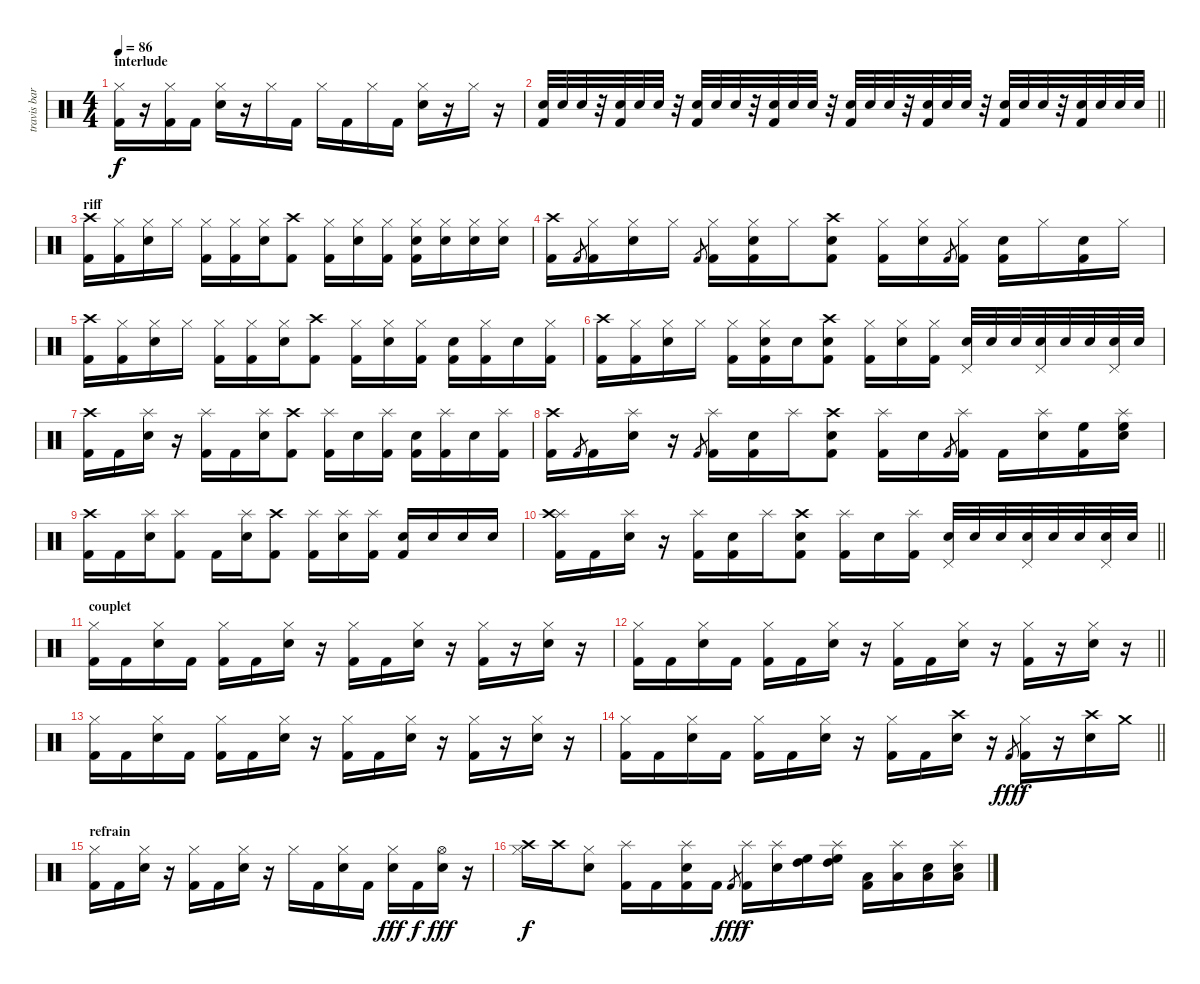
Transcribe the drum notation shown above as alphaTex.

\track ("travis barker drums" "travis bar") {instrument percussion}
\staff {score}
\articulation defaults
\ts (4 4)
\section ("" "interlude")
\tempo 86
\clef neutral
\ks c
("Hi-Hat (closed)" "Kick (hit) 2").16{dy f} r.16 ("Hi-Hat (closed)" "Kick (hit) 2").16 "Kick (hit) 2".16 ("Hi-Hat (closed)" "Snare (hit) 2").16 r.16 "Hi-Hat (closed)".16 "Kick (hit) 2".16 "Hi-Hat (closed)".16 "Kick (hit) 2".16 "Hi-Hat (closed)".16 "Kick (hit) 2".16 ("Hi-Hat (closed)" "Snare (hit) 2").16 r.16 "Hi-Hat (closed)".16 r.16 |
\barLineRight lightlight
("Snare (hit) 2" "Kick (hit) 2").32 "Snare (hit) 2".32 "Snare (hit) 2".32 r.32 ("Snare (hit) 2" "Kick (hit) 2").32 "Snare (hit) 2".32 "Snare (hit) 2".32 r.32 ("Snare (hit) 2" "Kick (hit) 2").32 "Snare (hit) 2".32 "Snare (hit) 2".32 r.32 ("Snare (hit) 2" "Kick (hit) 2").32 "Snare (hit) 2".32 "Snare (hit) 2".32 r.32 ("Snare (hit) 2" "Kick (hit) 2").32 "Snare (hit) 2".32 "Snare (hit) 2".32 r.32 ("Snare (hit) 2" "Kick (hit) 2").32 "Snare (hit) 2".32 "Snare (hit) 2".32 r.32 ("Snare (hit) 2" "Kick (hit) 2").32 "Snare (hit) 2".32 "Snare (hit) 2".32 r.32 ("Snare (hit) 2" "Kick (hit) 2").32 "Snare (hit) 2".32 "Snare (hit) 2".32 "Snare (hit) 2".32 |
\section ("" "riff")
("Crash high (hit)" "Kick (hit) 2").16 ("Hi-Hat (closed)" "Kick (hit) 2").16 ("Hi-Hat (closed)" "Snare (hit) 2").16 "Hi-Hat (closed)".16 ("Hi-Hat (closed)" "Kick (hit) 2").16 ("Hi-Hat (closed)" "Kick (hit) 2").16 ("Hi-Hat (closed)" "Snare (hit) 2").16 ("Crash high (hit)" "Kick (hit) 2").8 ("Hi-Hat (closed)" "Kick (hit) 2").16 ("Hi-Hat (closed)" "Snare (hit) 2").16 ("Hi-Hat (closed)" "Kick (hit) 2").16 ("Hi-Hat (closed)" "Snare (hit) 2" "Kick (hit) 2").16 ("Hi-Hat (closed)" "Snare (hit) 2").16 ("Hi-Hat (closed)" "Snare (hit) 2").16 ("Hi-Hat (closed)" "Snare (hit) 2").16 |
("Crash high (hit)" "Kick (hit) 2").16 "Kick (hit) 2".8{gr} ("Hi-Hat (closed)" "Kick (hit) 2").16 ("Hi-Hat (closed)" "Snare (hit) 2").16 "Hi-Hat (closed)".16 "Kick (hit) 2".8{gr} ("Hi-Hat (closed)" "Kick (hit) 2").16 ("Hi-Hat (closed)" "Snare (hit) 2" "Kick (hit) 2").16 "Hi-Hat (closed)".16 ("Crash high (hit)" "Snare (hit) 2" "Kick (hit) 2"{tr (36 16)}).8 ("Hi-Hat (closed)" "Kick (hit) 2").16 ("Hi-Hat (closed)" "Snare (hit) 2").16 "Kick (hit) 2".8{gr} ("Hi-Hat (closed)" "Kick (hit) 2").16 ("Snare (hit) 2" "Kick (hit) 2").16 "Hi-Hat (closed)".16 ("Snare (hit) 2" "Kick (hit) 2").16 "Hi-Hat (closed)".16 |
("Crash high (hit)" "Kick (hit) 2").16 ("Hi-Hat (closed)" "Kick (hit) 2").16 ("Hi-Hat (closed)" "Snare (hit) 2").16 "Hi-Hat (closed)".16 ("Hi-Hat (closed)" "Kick (hit) 2").16 ("Hi-Hat (closed)" "Kick (hit) 2").16 ("Hi-Hat (closed)" "Snare (hit) 2").16 ("Crash high (hit)" "Kick (hit) 2").8 ("Hi-Hat (closed)" "Kick (hit) 2").16 ("Hi-Hat (closed)" "Snare (hit) 2").16 ("Hi-Hat (closed)" "Kick (hit) 2").16 ("Snare (hit) 2" "Kick (hit) 2").16 ("Hi-Hat (closed)" "Kick (hit) 2").16 "Snare (hit) 2".16 ("Hi-Hat (closed)" "Kick (hit) 2").16 |
("Crash high (hit)" "Kick (hit) 2").16 ("Hi-Hat (closed)" "Kick (hit) 2").16 ("Hi-Hat (closed)" "Snare (hit) 2").16 "Hi-Hat (closed)".16 ("Hi-Hat (closed)" "Kick (hit) 2").16 ("Hi-Hat (closed)" "Snare (hit) 2" "Kick (hit) 2").16 "Snare (hit)".16 ("Crash high (hit)" "Snare (hit) 2" "Kick (hit) 2").8 ("Hi-Hat (closed)" "Kick (hit) 2").16 ("Hi-Hat (closed)" "Snare (hit) 2").16 ("Hi-Hat (closed)" "Kick (hit) 2").16 ("Pedal Hi-Hat (hit)" "Snare (hit) 2").32 "Snare (hit) 2".32 "Snare (hit) 2".32 ("Pedal Hi-Hat (hit)" "Snare (hit) 2").32 "Snare (hit) 2".32 "Snare (hit) 2".32 ("Pedal Hi-Hat (hit)" "Snare (hit) 2").32 "Snare (hit) 2".32 |
("Crash high (hit)" "Kick (hit) 2").16 "Kick (hit) 2".16 ("Splash (hit)" "Snare (hit) 2").16 r.16 ("Splash (hit)" "Kick (hit) 2").16 "Kick (hit) 2".16 ("Splash (hit)" "Snare (hit) 2").16 ("Crash high (hit)" "Kick (hit) 2").8 ("Splash (hit)" "Kick (hit) 2").16 "Snare (hit) 2".16 ("Splash (hit)" "Kick (hit) 2").16 ("Snare (hit) 2" "Kick (hit) 2").16 ("Splash (hit)" "Kick (hit) 2").16 "Snare (hit) 2".16 ("Splash (hit)" "Kick (hit) 2").16 |
("Crash high (hit)" "Kick (hit) 2").16 "Kick (hit) 2".8{gr} "Kick (hit) 2".16 ("Splash (hit)" "Snare (hit) 2").16 r.16 "Kick (hit) 2".8{gr} ("Splash (hit)" "Kick (hit) 2").16 ("Snare (hit) 2" "Kick (hit) 2").16 "Splash (hit)".16 ("Crash high (hit)" "Snare (hit) 2" "Kick (hit) 2"{tr (36 16)}).8 ("Splash (hit)" "Kick (hit) 2").16 "Snare (hit) 2".16 "Kick (hit) 2".8{gr} ("Splash (hit)" "Kick (hit) 2").16 "Kick (hit) 2".16 ("Splash (hit)" "Snare (hit) 2").16 ("High Floor Tom (hit)" "Kick (hit) 2").16 ("Splash (hit)" "High Floor Tom (hit)" "Snare (hit) 2").16 |
("Crash high (hit)" "Kick (hit) 2").16 "Kick (hit) 2".16 ("Splash (hit)" "Snare (hit) 2").16 ("Splash (hit)" "Kick (hit) 2").8 "Kick (hit) 2".16 ("Splash (hit)" "Snare (hit) 2").16 ("Crash high (hit)" "Kick (hit) 2").8 ("Splash (hit)" "Kick (hit) 2").16 ("Splash (hit)" "Snare (hit) 2").16 ("Splash (hit)" "Kick (hit) 2").16 ("Snare (hit) 2" "Kick (hit) 2").16 "Snare (hit) 2".16 "Snare (hit) 2".16 "Snare (hit) 2".16 |
\barLineRight lightlight
("Splash (hit)" "Crash high (hit)" "Kick (hit) 2").16 "Kick (hit) 2".16 ("Splash (hit)" "Snare (hit) 2").16 r.16 ("Splash (hit)" "Kick (hit) 2").16 ("Snare (hit) 2" "Kick (hit) 2").16 "Splash (hit)".16 ("Crash high (hit)" "Snare (hit) 2" "Kick (hit) 2").8 ("Splash (hit)" "Kick (hit) 2").16 "Snare (hit) 2".16 ("Splash (hit)" "Kick (hit) 2").16 ("Pedal Hi-Hat (hit)" "Snare (hit) 2").32 "Snare (hit) 2".32 "Snare (hit) 2".32 ("Pedal Hi-Hat (hit)" "Snare (hit) 2").32 "Snare (hit) 2".32 "Snare (hit) 2".32 ("Pedal Hi-Hat (hit)" "Snare (hit) 2").32 "Snare (hit) 2".32 |
\section ("" "couplet")
("Hi-Hat (closed)" "Kick (hit) 2").16 "Kick (hit) 2".16 ("Hi-Hat (closed)" "Snare (hit) 2").16 "Kick (hit) 2".16 ("Hi-Hat (closed)" "Kick (hit) 2").16 "Kick (hit) 2".16 ("Hi-Hat (closed)" "Snare (hit) 2").16 r.16 ("Hi-Hat (closed)" "Kick (hit) 2").16 "Kick (hit) 2".16 ("Hi-Hat (closed)" "Snare (hit) 2").16 r.16 ("Hi-Hat (closed)" "Kick (hit) 2").16 r.16 ("Hi-Hat (closed)" "Snare (hit) 2").16 r.16 |
\barLineRight lightlight
("Hi-Hat (closed)" "Kick (hit) 2").16 "Kick (hit) 2".16 ("Hi-Hat (closed)" "Snare (hit) 2").16 "Kick (hit) 2".16 ("Hi-Hat (closed)" "Kick (hit) 2").16 "Kick (hit) 2".16 ("Hi-Hat (closed)" "Snare (hit) 2").16 r.16 ("Hi-Hat (closed)" "Kick (hit) 2").16 "Kick (hit) 2".16 ("Hi-Hat (closed)" "Snare (hit) 2").16 r.16 ("Hi-Hat (closed)" "Kick (hit) 2").16 r.16 ("Hi-Hat (closed)" "Snare (hit) 2").16 r.16 |
("Hi-Hat (closed)" "Kick (hit) 2").16 "Kick (hit) 2".16 ("Hi-Hat (closed)" "Snare (hit) 2").16 "Kick (hit) 2".16 ("Hi-Hat (closed)" "Kick (hit) 2").16 "Kick (hit) 2".16 ("Hi-Hat (closed)" "Snare (hit) 2").16 r.16 ("Hi-Hat (closed)" "Kick (hit) 2").16 "Kick (hit) 2".16 ("Hi-Hat (closed)" "Snare (hit) 2").16 r.16 ("Hi-Hat (closed)" "Kick (hit) 2").16 r.16 ("Hi-Hat (closed)" "Snare (hit) 2").16 r.16 |
\barLineRight lightlight
("Hi-Hat (closed)" "Kick (hit) 2").16 "Kick (hit) 2".16 ("Hi-Hat (closed)" "Snare (hit) 2").16 "Kick (hit) 2".16 ("Hi-Hat (closed)" "Kick (hit) 2").16 "Kick (hit) 2".16 ("Hi-Hat (closed)" "Snare (hit) 2").16 r.16 ("Hi-Hat (closed)" "Kick (hit) 2").16 "Kick (hit) 2".16 ("Crash high (hit)" "Snare (hit) 2").16 r.16 "Kick (hit) 2".8{gr dy fff} ("Hi-Hat (closed)" "Kick (hit) 2").16{dy f} r.16 ("Crash high (hit)" "Snare (hit) 2").16 "Crash medium (hit)".16 |
\section ("" "refrain")
("Hi-Hat (closed)" "Kick (hit) 2").16 "Kick (hit) 2".16 ("Hi-Hat (closed)" "Snare (hit) 2").16 r.16 ("Hi-Hat (closed)" "Kick (hit) 2").16 "Kick (hit) 2".16 ("Hi-Hat (closed)" "Snare (hit) 2").16 r.16 "Hi-Hat (closed)".16 "Kick (hit) 2".16 ("Hi-Hat (closed)" "Snare (hit) 2").16 "Kick (hit) 2".16 ("Hi-Hat (closed)" "Snare (hit) 2").16{dy fff} "Kick (hit) 2".16{dy f} ("Hi-Hat (open)" "Snare (hit) 2").16{dy fff} r.16 |
("Hi-Hat (closed)" "Crash high (hit)").16{dy f} "Crash high (hit)".16 ("Hi-Hat (closed)" "Snare (hit) 2").8 ("Splash (hit)" "Kick (hit) 2").16 "Kick (hit) 2".16 ("Kick (hit) 2" "Splash (hit)" "Snare (hit) 2"{tr (36 64)}).16 "Kick (hit) 2".16 "Kick (hit) 2".8{gr dy fff} ("Splash (hit)" "Kick (hit) 2").16{dy f} ("Splash (hit)" "Snare (hit) 2").16 ("High Floor Tom (hit)" "High Tom (hit)").16 ("Splash (hit)" "High Floor Tom (hit)" "High Tom (hit)").16 ("Low Tom (hit)" "Kick (hit) 2"{tr (36 64)}).16 ("Splash (hit)" "Low Tom (hit)").16 ("Snare (hit) 2" "Low Floor Tom (hit)").16 ("Splash (hit)" "Snare (hit) 2" "Low Floor Tom (hit)").16
